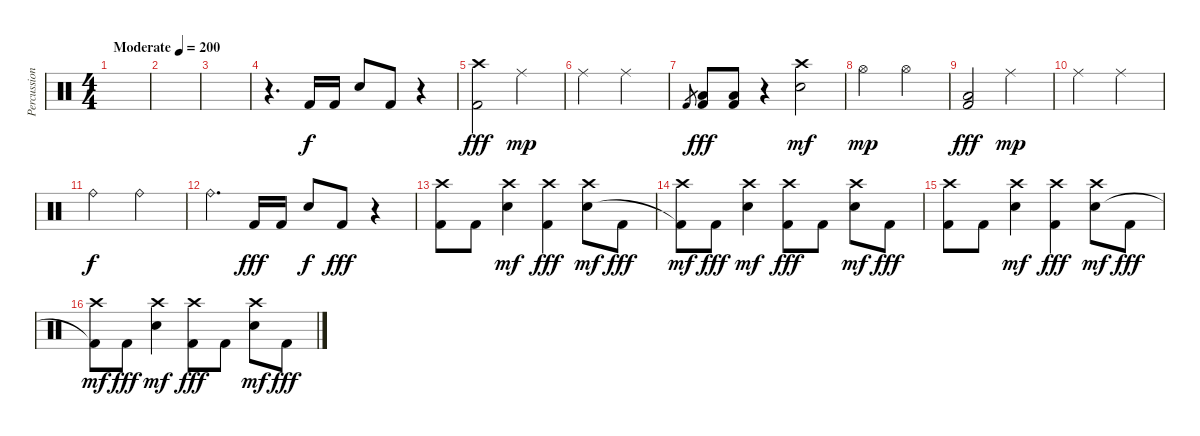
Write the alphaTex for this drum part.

\track ("Percussion" "Percussion") {instrument percussion}
\staff {score}
\articulation defaults
\ts (4 4)
\tempo (200 "Moderate")
\clef neutral
\ks c
|
|
|
r.4{d} "Kick (hit) 2".16 "Kick (hit) 2".16 "Electric Snare (hit)".8 "Kick (hit) 2".8 r.4 |
("Crash high (hit)" "Kick (hit) 2").2{dy fff} "Ride (middle)".2{dy mp} |
"Ride (middle)".2 "Ride (middle)".2 |
"Kick (hit) 2".8{gr} ("Low Floor Tom (hit)" "Kick (hit) 2").8{dy fff} ("Low Floor Tom (hit)" "Kick (hit) 2").8 r.4 ("Crash high (hit)" "Electric Snare (hit)").2{dy mf} |
"Hi-Hat (open)".2{dy mp} "Hi-Hat (open)".2 |
("Low Floor Tom (hit)" "Kick (hit) 2").2{dy fff} "Ride (middle)".2{dy mp} |
"Ride (middle)".2 "Ride (middle)".2 |
"Ride (bell)".2{dy f} "Ride (bell)".2 |
"Ride (bell)".4{d} "Kick (hit) 2".16{dy fff} "Kick (hit) 2".16 "Electric Snare (hit)".8{dy f} "Kick (hit) 2".8{dy fff} r.4 |
("Crash high (hit)" "Kick (hit) 2").8 "Kick (hit) 2".8 ("Crash high (hit)" "Electric Snare (hit)").4{dy mf} ("Crash high (hit)" "Kick (hit) 2").4{dy fff} ("Crash high (hit)" "Electric Snare (hit)").8{dy mf} "Kick (hit) 2".8{dy fff} |
("Crash high (hit)" "Kick (hit) 2"{t}).8{dy mf} "Kick (hit) 2".8{dy fff} ("Crash high (hit)" "Electric Snare (hit)").4{dy mf} ("Crash high (hit)" "Kick (hit) 2").8{dy fff} "Kick (hit) 2".8 ("Crash high (hit)" "Electric Snare (hit)").8{dy mf} "Kick (hit) 2".8{dy fff} |
("Crash high (hit)" "Kick (hit) 2").8 "Kick (hit) 2".8 ("Crash high (hit)" "Electric Snare (hit)").4{dy mf} ("Crash high (hit)" "Kick (hit) 2").4{dy fff} ("Crash high (hit)" "Electric Snare (hit)").8{dy mf} "Kick (hit) 2".8{dy fff} |
("Crash high (hit)" "Kick (hit) 2"{t}).8{dy mf} "Kick (hit) 2".8{dy fff} ("Crash high (hit)" "Electric Snare (hit)").4{dy mf} ("Crash high (hit)" "Kick (hit) 2").8{dy fff} "Kick (hit) 2".8 ("Crash high (hit)" "Electric Snare (hit)").8{dy mf} "Kick (hit) 2".8{dy fff}
